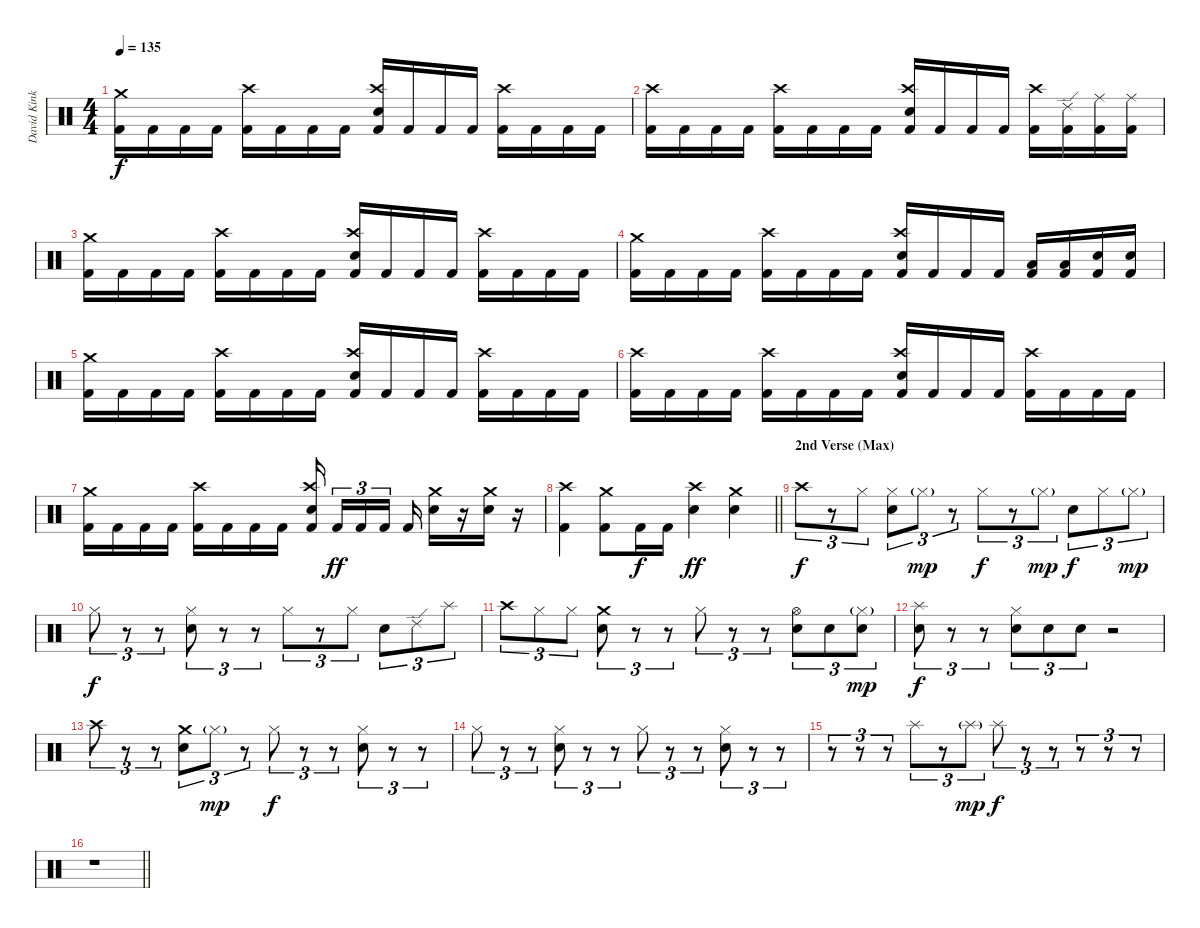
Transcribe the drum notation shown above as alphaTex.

\track ("David Kinkade" "David Kink") {instrument percussion}
\staff {score}
\articulation defaults
\ts (4 4)
\tempo 135
\clef neutral
\ks c
("Crash medium (hit)" "Kick (hit) 2").16{dy f} "Kick (hit) 2".16 "Kick (hit) 2".16 "Kick (hit) 2".16 ("Crash high (hit)" "Kick (hit) 2").16 "Kick (hit) 2".16 "Kick (hit) 2".16 "Kick (hit) 2".16 ("Crash high (hit)" "Snare (hit) 2" "Kick (hit) 2").16 "Kick (hit) 2".16 "Kick (hit) 2".16 "Kick (hit) 2".16 ("Crash high (hit)" "Kick (hit) 2").16 "Kick (hit) 2".16 "Kick (hit) 2".16 "Kick (hit) 2".16 |
("Crash high (hit)" "Kick (hit) 2").16 "Kick (hit) 2".16 "Kick (hit) 2".16 "Kick (hit) 2".16 ("Crash high (hit)" "Kick (hit) 2").16 "Kick (hit) 2".16 "Kick (hit) 2".16 "Kick (hit) 2".16 ("Crash high (hit)" "Snare (hit) 2" "Kick (hit) 2").16 "Kick (hit) 2".16 "Kick (hit) 2".16 "Kick (hit) 2".16 ("Crash high (hit)" "Kick (hit) 2").16 ("Ride (edge) 2" "Kick (hit) 2").16 ("Ride (middle)" "Kick (hit) 2").16 ("Ride (middle)" "Kick (hit) 2").16 |
("Crash medium (hit)" "Kick (hit) 2").16 "Kick (hit) 2".16 "Kick (hit) 2".16 "Kick (hit) 2".16 ("Crash high (hit)" "Kick (hit) 2").16 "Kick (hit) 2".16 "Kick (hit) 2".16 "Kick (hit) 2".16 ("Crash high (hit)" "Snare (hit) 2" "Kick (hit) 2").16 "Kick (hit) 2".16 "Kick (hit) 2".16 "Kick (hit) 2".16 ("Crash high (hit)" "Kick (hit) 2").16 "Kick (hit) 2".16 "Kick (hit) 2".16 "Kick (hit) 2".16 |
("Crash medium (hit)" "Kick (hit) 2").16 "Kick (hit) 2".16 "Kick (hit) 2".16 "Kick (hit) 2".16 ("Crash high (hit)" "Kick (hit) 2").16 "Kick (hit) 2".16 "Kick (hit) 2".16 "Kick (hit) 2".16 ("Crash high (hit)" "Snare (hit) 2" "Kick (hit) 2").16 "Kick (hit) 2".16 "Kick (hit) 2".16 "Kick (hit) 2".16 ("Low Tom (hit)" "Kick (hit) 2").16 ("Low Tom (hit)" "Kick (hit) 2").16 ("Snare (hit) 2" "Kick (hit) 2").16 ("Snare (hit) 2" "Kick (hit) 2").16 |
("Crash medium (hit)" "Kick (hit) 2").16 "Kick (hit) 2".16 "Kick (hit) 2".16 "Kick (hit) 2".16 ("Crash high (hit)" "Kick (hit) 2").16 "Kick (hit) 2".16 "Kick (hit) 2".16 "Kick (hit) 2".16 ("Crash high (hit)" "Snare (hit) 2" "Kick (hit) 2").16 "Kick (hit) 2".16 "Kick (hit) 2".16 "Kick (hit) 2".16 ("Crash high (hit)" "Kick (hit) 2").16 "Kick (hit) 2".16 "Kick (hit) 2".16 "Kick (hit) 2".16 |
("Crash high (hit)" "Kick (hit) 2").16 "Kick (hit) 2".16 "Kick (hit) 2".16 "Kick (hit) 2".16 ("Crash high (hit)" "Kick (hit) 2").16 "Kick (hit) 2".16 "Kick (hit) 2".16 "Kick (hit) 2".16 ("Crash high (hit)" "Snare (hit) 2" "Kick (hit) 2").16 "Kick (hit) 2".16 "Kick (hit) 2".16 "Kick (hit) 2".16 ("Crash high (hit)" "Kick (hit) 2").16 "Kick (hit) 2".16 "Kick (hit) 2".16 "Kick (hit) 2".16 |
("Crash medium (hit)" "Kick (hit) 2").16 "Kick (hit) 2".16 "Kick (hit) 2".16 "Kick (hit) 2".16 ("Crash high (hit)" "Kick (hit) 2").16 "Kick (hit) 2".16 "Kick (hit) 2".16 "Kick (hit) 2".16 ("Crash high (hit)" "Snare (hit) 2" "Kick (hit) 2").16{beam splitsecondary} "Kick (hit) 2".16{tu (3 2) dy ff} "Kick (hit) 2".16{tu (3 2)} "Kick (hit) 2".16{tu (3 2) beam splitsecondary} "Kick (hit) 2".16 ("Crash medium (hit)" "Snare (hit) 2").16 r.16 ("Crash medium (hit)" "Snare (hit) 2").16 r.16 |
\barLineRight lightlight
("Crash high (hit)" "Kick (hit) 2").4 ("Crash medium (hit)" "Kick (hit) 2").8 "Kick (hit) 2".16{dy f} "Kick (hit) 2".16 ("Crash high (hit)" "Snare (hit) 2").4{dy ff} ("Crash medium (hit)" "Snare (hit) 2").4 |
\section ("" "2nd Verse (Max)")
"Crash high (hit)".8{tu (3 2) dy f} r.8{tu (3 2)} "Hi-Hat (closed)".8{tu (3 2)} ("Hi-Hat (closed)" "Snare (hit) 2").8{tu (3 2)} "Hi-Hat (closed)"{g}.8{tu (3 2) dy mp} r.8{tu (3 2)} "Hi-Hat (closed)".8{tu (3 2) dy f} r.8{tu (3 2)} "Hi-Hat (closed)"{g}.8{tu (3 2) dy mp} "Snare (hit) 2".8{tu (3 2) dy f} "Hi-Hat (closed)".8{tu (3 2)} "Hi-Hat (closed)"{g}.8{tu (3 2) dy mp} |
"Hi-Hat (closed)".8{tu (3 2) dy f} r.8{tu (3 2)} r.8{tu (3 2)} ("Hi-Hat (closed)" "Snare (hit) 2").8{tu (3 2)} r.8{tu (3 2)} r.8{tu (3 2)} "Hi-Hat (closed)".8{tu (3 2)} r.8{tu (3 2)} "Hi-Hat (closed)".8{tu (3 2)} "Snare (hit) 2".8{tu (3 2)} "Ride (edge) 2".8{tu (3 2)} "Splash (hit)".8{tu (3 2)} |
"Crash high (hit)".8{tu (3 2)} "Hi-Hat (closed)".8{tu (3 2)} "Hi-Hat (closed)".8{tu (3 2)} ("Crash medium (hit)" "Snare (hit) 2").8{tu (3 2)} r.8{tu (3 2)} r.8{tu (3 2)} "Hi-Hat (closed)".8{tu (3 2)} r.8{tu (3 2)} r.8{tu (3 2)} ("Hi-Hat (open)" "Snare (hit) 2").8{tu (3 2)} "Snare (hit) 2".8{tu (3 2)} ("Hi-Hat (closed)"{g} "Snare (hit) 2").8{tu (3 2) dy mp} |
("Splash (hit)" "Snare (hit) 2").8{tu (3 2) dy f} r.8{tu (3 2)} r.8{tu (3 2)} ("Hi-Hat (closed)" "Snare (hit) 2").8{tu (3 2)} "Snare (hit) 2".8{tu (3 2)} "Snare (hit) 2".8{tu (3 2)} r.2 |
"Crash high (hit)".8{tu (3 2)} r.8{tu (3 2)} r.8{tu (3 2)} ("Crash medium (hit)" "Snare (hit) 2").8{tu (3 2)} "Hi-Hat (closed)"{g}.8{tu (3 2) dy mp} r.8{tu (3 2)} "Hi-Hat (closed)".8{tu (3 2) dy f} r.8{tu (3 2)} r.8{tu (3 2)} ("Hi-Hat (closed)" "Snare (hit) 2").8{tu (3 2)} r.8{tu (3 2)} r.8{tu (3 2)} |
"Hi-Hat (closed)".8{tu (3 2)} r.8{tu (3 2)} r.8{tu (3 2)} ("Hi-Hat (closed)" "Snare (hit) 2").8{tu (3 2)} r.8{tu (3 2)} r.8{tu (3 2)} "Hi-Hat (closed)".8{tu (3 2)} r.8{tu (3 2)} r.8{tu (3 2)} ("Hi-Hat (closed)" "Snare (hit) 2").8{tu (3 2)} r.8{tu (3 2)} r.8{tu (3 2)} |
r.8{tu (3 2)} r.8{tu (3 2)} r.8{tu (3 2)} "Splash (hit)".8{tu (3 2)} r.8{tu (3 2)} "Splash (hit)"{g}.8{tu (3 2) dy mp} "Splash (hit)".8{tu (3 2) dy f} r.8{tu (3 2)} r.8{tu (3 2)} r.8{tu (3 2)} r.8{tu (3 2)} r.8{tu (3 2)} |
\barLineRight lightlight
r.1
